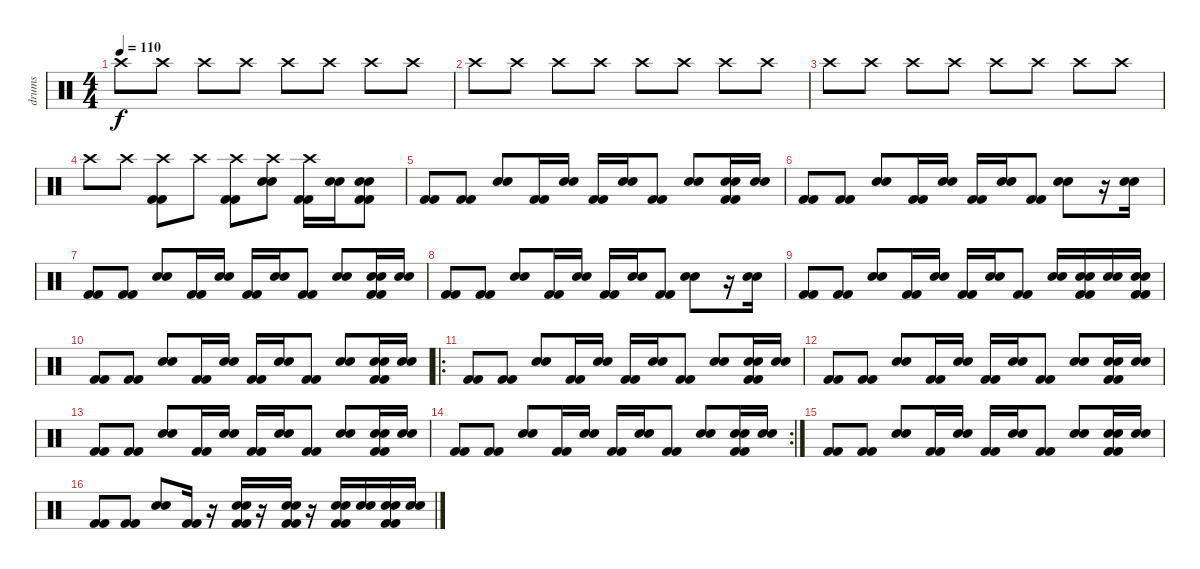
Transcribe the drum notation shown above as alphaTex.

\track ("drums" "drums") {instrument percussion}
\staff {score}
\articulation defaults
\ts (4 4)
\tempo 110
\clef neutral
\ks c "Crash high (hit)".8{dy f volume 7} "Crash high (hit)".8 "Crash high (hit)".8 "Crash high (hit)".8 "Crash high (hit)".8 "Crash high (hit)".8 "Crash high (hit)".8 "Crash high (hit)".8
|
"Crash high (hit)".8 "Crash high (hit)".8 "Crash high (hit)".8 "Crash high (hit)".8 "Crash high (hit)".8 "Crash high (hit)".8 "Crash high (hit)".8 "Crash high (hit)".8 |
"Crash high (hit)".8 "Crash high (hit)".8 "Crash high (hit)".8 "Crash high (hit)".8 "Crash high (hit)".8 "Crash high (hit)".8 "Crash high (hit)".8 "Crash high (hit)".8 |
"Crash high (hit)".8{volume 10} "Crash high (hit)".8 ("Crash high (hit)" "Kick (hit) 2" "Kick (hit) 2").8 "Crash high (hit)".8 ("Crash high (hit)" "Kick (hit) 2" "Kick (hit) 2").8{volume 14} ("Snare (hit) 2" "Snare (hit) 2" "Crash high (hit)").8 ("Crash high (hit)" "Kick (hit) 2" "Kick (hit) 2").16 ("Snare (hit) 2" "Snare (hit) 2").16 ("Snare (hit) 2" "Snare (hit) 2" "Kick (hit) 2" "Kick (hit) 2").8 |
("Kick (hit) 2" "Kick (hit) 2").8{volume 16} ("Kick (hit) 2" "Kick (hit) 2").8 ("Snare (hit) 2" "Snare (hit) 2").8 ("Kick (hit) 2" "Kick (hit) 2").16 ("Snare (hit) 2" "Snare (hit) 2").16 ("Kick (hit) 2" "Kick (hit) 2").16 ("Snare (hit) 2" "Snare (hit) 2").16 ("Kick (hit) 2" "Kick (hit) 2").8 ("Snare (hit) 2" "Snare (hit) 2").8 ("Snare (hit) 2" "Snare (hit) 2" "Kick (hit) 2" "Kick (hit) 2").16 ("Snare (hit) 2" "Snare (hit) 2").16 |
("Kick (hit) 2" "Kick (hit) 2").8 ("Kick (hit) 2" "Kick (hit) 2").8 ("Snare (hit) 2" "Snare (hit) 2").8 ("Kick (hit) 2" "Kick (hit) 2").16 ("Snare (hit) 2" "Snare (hit) 2").16 ("Kick (hit) 2" "Kick (hit) 2").16 ("Snare (hit) 2" "Snare (hit) 2").16 ("Kick (hit) 2" "Kick (hit) 2").8 ("Snare (hit) 2" "Snare (hit) 2").8 r.16 ("Snare (hit) 2" "Snare (hit) 2").16 |
("Kick (hit) 2" "Kick (hit) 2").8 ("Kick (hit) 2" "Kick (hit) 2").8 ("Snare (hit) 2" "Snare (hit) 2").8 ("Kick (hit) 2" "Kick (hit) 2").16 ("Snare (hit) 2" "Snare (hit) 2").16 ("Kick (hit) 2" "Kick (hit) 2").16 ("Snare (hit) 2" "Snare (hit) 2").16 ("Kick (hit) 2" "Kick (hit) 2").8 ("Snare (hit) 2" "Snare (hit) 2").8 ("Snare (hit) 2" "Snare (hit) 2" "Kick (hit) 2" "Kick (hit) 2").16 ("Snare (hit) 2" "Snare (hit) 2").16 |
("Kick (hit) 2" "Kick (hit) 2").8 ("Kick (hit) 2" "Kick (hit) 2").8 ("Snare (hit) 2" "Snare (hit) 2").8 ("Kick (hit) 2" "Kick (hit) 2").16 ("Snare (hit) 2" "Snare (hit) 2").16 ("Kick (hit) 2" "Kick (hit) 2").16 ("Snare (hit) 2" "Snare (hit) 2").16 ("Kick (hit) 2" "Kick (hit) 2").8 ("Snare (hit) 2" "Snare (hit) 2").8 r.16 ("Snare (hit) 2" "Snare (hit) 2").16 |
("Kick (hit) 2" "Kick (hit) 2").8 ("Kick (hit) 2" "Kick (hit) 2").8 ("Snare (hit) 2" "Snare (hit) 2").8 ("Kick (hit) 2" "Kick (hit) 2").16 ("Snare (hit) 2" "Snare (hit) 2").16 ("Kick (hit) 2" "Kick (hit) 2").16 ("Snare (hit) 2" "Snare (hit) 2").16 ("Kick (hit) 2" "Kick (hit) 2").8 ("Snare (hit) 2" "Snare (hit) 2").16 ("Snare (hit) 2" "Snare (hit) 2" "Kick (hit) 2" "Kick (hit) 2").16 ("Snare (hit) 2" "Snare (hit) 2").16 ("Snare (hit) 2" "Snare (hit) 2" "Kick (hit) 2" "Kick (hit) 2").16 |
("Kick (hit) 2" "Kick (hit) 2").8 ("Kick (hit) 2" "Kick (hit) 2").8 ("Snare (hit) 2" "Snare (hit) 2").8 ("Kick (hit) 2" "Kick (hit) 2").16 ("Snare (hit) 2" "Snare (hit) 2").16 ("Kick (hit) 2" "Kick (hit) 2").16 ("Snare (hit) 2" "Snare (hit) 2").16 ("Kick (hit) 2" "Kick (hit) 2").8 ("Snare (hit) 2" "Snare (hit) 2").8 ("Snare (hit) 2" "Snare (hit) 2" "Kick (hit) 2" "Kick (hit) 2").16 ("Snare (hit) 2" "Snare (hit) 2").16 |
\ro
("Kick (hit) 2" "Kick (hit) 2").8 ("Kick (hit) 2" "Kick (hit) 2").8 ("Snare (hit) 2" "Snare (hit) 2").8 ("Kick (hit) 2" "Kick (hit) 2").16 ("Snare (hit) 2" "Snare (hit) 2").16 ("Kick (hit) 2" "Kick (hit) 2").16 ("Snare (hit) 2" "Snare (hit) 2").16 ("Kick (hit) 2" "Kick (hit) 2").8 ("Snare (hit) 2" "Snare (hit) 2").8 ("Snare (hit) 2" "Snare (hit) 2" "Kick (hit) 2" "Kick (hit) 2").16 ("Snare (hit) 2" "Snare (hit) 2").16 |
("Kick (hit) 2" "Kick (hit) 2").8 ("Kick (hit) 2" "Kick (hit) 2").8 ("Snare (hit) 2" "Snare (hit) 2").8 ("Kick (hit) 2" "Kick (hit) 2").16 ("Snare (hit) 2" "Snare (hit) 2").16 ("Kick (hit) 2" "Kick (hit) 2").16 ("Snare (hit) 2" "Snare (hit) 2").16 ("Kick (hit) 2" "Kick (hit) 2").8 ("Snare (hit) 2" "Snare (hit) 2").8 ("Snare (hit) 2" "Snare (hit) 2" "Kick (hit) 2" "Kick (hit) 2").16 ("Snare (hit) 2" "Snare (hit) 2").16 |
("Kick (hit) 2" "Kick (hit) 2").8 ("Kick (hit) 2" "Kick (hit) 2").8 ("Snare (hit) 2" "Snare (hit) 2").8 ("Kick (hit) 2" "Kick (hit) 2").16 ("Snare (hit) 2" "Snare (hit) 2").16 ("Kick (hit) 2" "Kick (hit) 2").16 ("Snare (hit) 2" "Snare (hit) 2").16 ("Kick (hit) 2" "Kick (hit) 2").8 ("Snare (hit) 2" "Snare (hit) 2").8 ("Snare (hit) 2" "Snare (hit) 2" "Kick (hit) 2" "Kick (hit) 2").16 ("Snare (hit) 2" "Snare (hit) 2").16 |
\rc 2
("Kick (hit) 2" "Kick (hit) 2").8 ("Kick (hit) 2" "Kick (hit) 2").8 ("Snare (hit) 2" "Snare (hit) 2").8 ("Kick (hit) 2" "Kick (hit) 2").16 ("Snare (hit) 2" "Snare (hit) 2").16 ("Kick (hit) 2" "Kick (hit) 2").16 ("Snare (hit) 2" "Snare (hit) 2").16 ("Kick (hit) 2" "Kick (hit) 2").8 ("Snare (hit) 2" "Snare (hit) 2").8 ("Snare (hit) 2" "Snare (hit) 2" "Kick (hit) 2" "Kick (hit) 2").16 ("Snare (hit) 2" "Snare (hit) 2").16 |
("Kick (hit) 2" "Kick (hit) 2").8 ("Kick (hit) 2" "Kick (hit) 2").8 ("Snare (hit) 2" "Snare (hit) 2").8 ("Kick (hit) 2" "Kick (hit) 2").16 ("Snare (hit) 2" "Snare (hit) 2").16 ("Kick (hit) 2" "Kick (hit) 2").16 ("Snare (hit) 2" "Snare (hit) 2").16 ("Kick (hit) 2" "Kick (hit) 2").8 ("Snare (hit) 2" "Snare (hit) 2").8 ("Snare (hit) 2" "Snare (hit) 2" "Kick (hit) 2" "Kick (hit) 2").16 ("Snare (hit) 2" "Snare (hit) 2").16 |
("Kick (hit) 2" "Kick (hit) 2").8 ("Kick (hit) 2" "Kick (hit) 2").8 ("Snare (hit) 2" "Snare (hit) 2").8 ("Kick (hit) 2" "Kick (hit) 2").16 r.16 ("Snare (hit) 2" "Snare (hit) 2" "Kick (hit) 2" "Kick (hit) 2").16 r.16 ("Snare (hit) 2" "Snare (hit) 2" "Kick (hit) 2" "Kick (hit) 2").16 r.16 ("Snare (hit) 2" "Snare (hit) 2" "Kick (hit) 2" "Kick (hit) 2").16 ("Snare (hit) 2" "Snare (hit) 2").16 ("Snare (hit) 2" "Snare (hit) 2" "Kick (hit) 2" "Kick (hit) 2").16 ("Snare (hit) 2" "Snare (hit) 2").16
